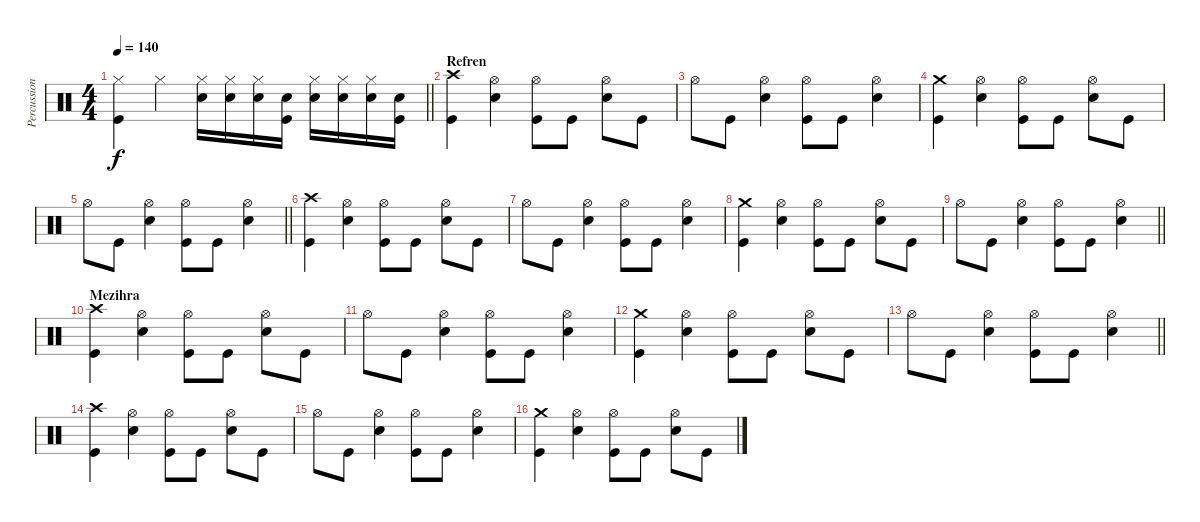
\track ("Percussion" "Percussion") {instrument percussion}
\staff {score}
\articulation defaults
\ts (4 4)
\tempo 140
\clef neutral
\barLineRight lightlight
\ks c
("Hi-Hat (closed)" "Kick (hit)").4{dy f} "Hi-Hat (closed)".4 ("Hi-Hat (closed)" "Electric Snare (hit)").16 ("Hi-Hat (closed)" "Electric Snare (hit)").16 ("Hi-Hat (closed)" "Electric Snare (hit)").16 ("Kick (hit)" "Electric Snare (hit)").16 ("Hi-Hat (closed)" "Electric Snare (hit)").16 ("Hi-Hat (closed)" "Electric Snare (hit)").16 ("Hi-Hat (closed)" "Electric Snare (hit)").16 ("Kick (hit)" "Electric Snare (hit)").16 |
\section ("" "Refren")
("Crash high (hit)" "Kick (hit)").4 ("Hi-Hat (open)" "Electric Snare (hit)").4 ("Hi-Hat (open)" "Kick (hit)").8 "Kick (hit)".8 ("Hi-Hat (open)" "Electric Snare (hit)").8 "Kick (hit)".8 |
"Hi-Hat (open)".8 "Kick (hit)".8 ("Hi-Hat (open)" "Electric Snare (hit)").4 ("Hi-Hat (open)" "Kick (hit)").8 "Kick (hit)".8 ("Hi-Hat (open)" "Electric Snare (hit)").4 |
("Crash medium (hit)" "Kick (hit)").4 ("Hi-Hat (open)" "Electric Snare (hit)").4 ("Hi-Hat (open)" "Kick (hit)").8 "Kick (hit)".8 ("Hi-Hat (open)" "Electric Snare (hit)").8 "Kick (hit)".8 |
\barLineRight lightlight "Hi-Hat (open)".8 "Kick (hit)".8
("Hi-Hat (open)" "Electric Snare (hit)").4 ("Hi-Hat (open)" "Kick (hit)").8 "Kick (hit)".8 ("Hi-Hat (open)" "Electric Snare (hit)").4 |
("Crash high (hit)" "Kick (hit)").4 ("Hi-Hat (open)" "Electric Snare (hit)").4 ("Hi-Hat (open)" "Kick (hit)").8 "Kick (hit)".8 ("Hi-Hat (open)" "Electric Snare (hit)").8 "Kick (hit)".8 |
"Hi-Hat (open)".8 "Kick (hit)".8 ("Hi-Hat (open)" "Electric Snare (hit)").4 ("Hi-Hat (open)" "Kick (hit)").8 "Kick (hit)".8 ("Hi-Hat (open)" "Electric Snare (hit)").4 |
("Crash medium (hit)" "Kick (hit)").4 ("Hi-Hat (open)" "Electric Snare (hit)").4 ("Hi-Hat (open)" "Kick (hit)").8 "Kick (hit)".8 ("Hi-Hat (open)" "Electric Snare (hit)").8 "Kick (hit)".8 |
\barLineRight lightlight "Hi-Hat (open)".8 "Kick (hit)".8
("Hi-Hat (open)" "Electric Snare (hit)").4 ("Hi-Hat (open)" "Kick (hit)").8 "Kick (hit)".8 ("Hi-Hat (open)" "Electric Snare (hit)").4 |
\section ("" "Mezihra")
("Crash high (hit)" "Kick (hit)").4 ("Hi-Hat (open)" "Electric Snare (hit)").4 ("Hi-Hat (open)" "Kick (hit)").8 "Kick (hit)".8 ("Hi-Hat (open)" "Electric Snare (hit)").8 "Kick (hit)".8 |
"Hi-Hat (open)".8 "Kick (hit)".8 ("Hi-Hat (open)" "Electric Snare (hit)").4 ("Hi-Hat (open)" "Kick (hit)").8 "Kick (hit)".8 ("Hi-Hat (open)" "Electric Snare (hit)").4 |
("Crash medium (hit)" "Kick (hit)").4 ("Hi-Hat (open)" "Electric Snare (hit)").4 ("Hi-Hat (open)" "Kick (hit)").8 "Kick (hit)".8 ("Hi-Hat (open)" "Electric Snare (hit)").8 "Kick (hit)".8 |
\barLineRight lightlight "Hi-Hat (open)".8 "Kick (hit)".8
("Hi-Hat (open)" "Electric Snare (hit)").4 ("Hi-Hat (open)" "Kick (hit)").8 "Kick (hit)".8 ("Hi-Hat (open)" "Electric Snare (hit)").4 |
("Crash high (hit)" "Kick (hit)").4 ("Hi-Hat (open)" "Electric Snare (hit)").4 ("Hi-Hat (open)" "Kick (hit)").8 "Kick (hit)".8 ("Hi-Hat (open)" "Electric Snare (hit)").8 "Kick (hit)".8 |
"Hi-Hat (open)".8 "Kick (hit)".8 ("Hi-Hat (open)" "Electric Snare (hit)").4 ("Hi-Hat (open)" "Kick (hit)").8 "Kick (hit)".8 ("Hi-Hat (open)" "Electric Snare (hit)").4 |
("Crash medium (hit)" "Kick (hit)").4 ("Hi-Hat (open)" "Electric Snare (hit)").4 ("Hi-Hat (open)" "Kick (hit)").8 "Kick (hit)".8 ("Hi-Hat (open)" "Electric Snare (hit)").8 "Kick (hit)".8
